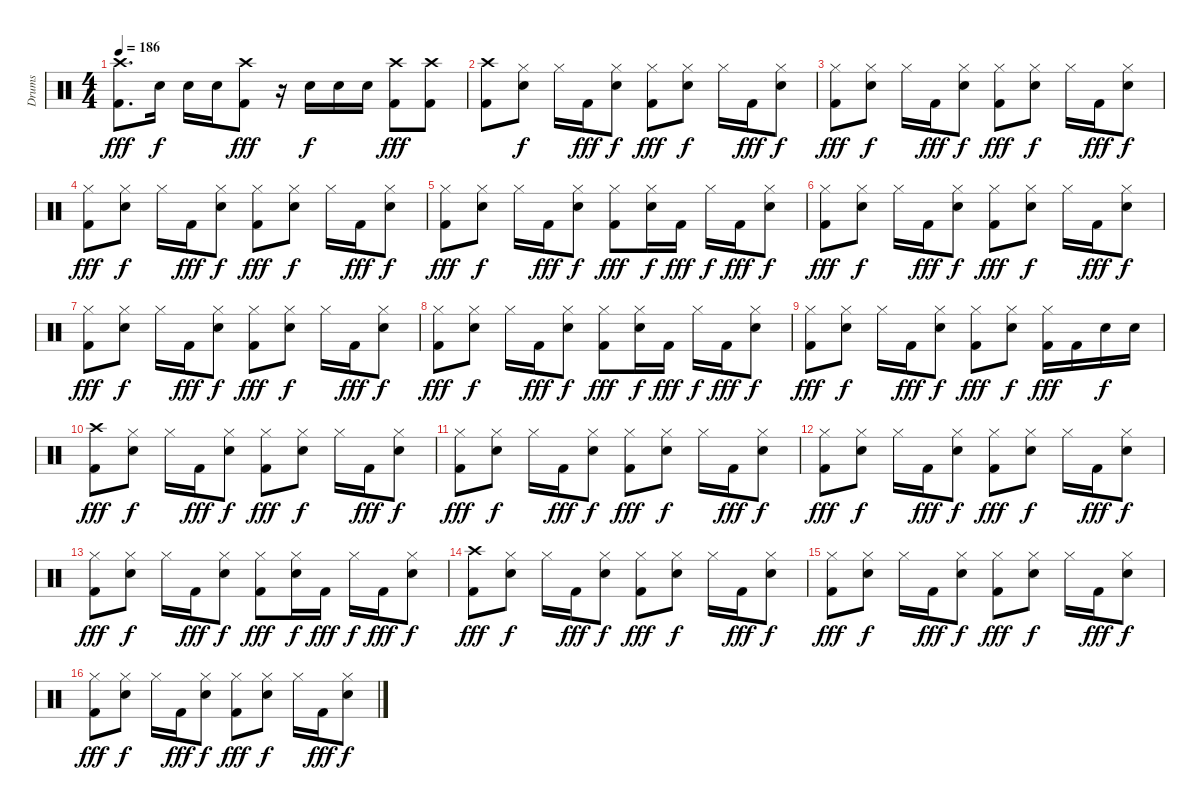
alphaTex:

\track ("Drums" "Drums") {instrument percussion}
\staff {score}
\articulation defaults
\ts (4 4)
\tempo 186
\clef neutral
\ks c
("Crash high (hit)" "Kick (hit) 2").8{d dy fff} "Electric Snare (hit)".16{dy f} "Electric Snare (hit)".16 "Electric Snare (hit)".16 ("Crash high (hit)" "Kick (hit) 2").8{dy fff} r.16 "Electric Snare (hit)".16{dy f} "Electric Snare (hit)".16 "Electric Snare (hit)".16 ("Crash high (hit)" "Kick (hit) 2").8{dy fff} ("Crash high (hit)" "Kick (hit) 2").8 |
("Crash high (hit)" "Kick (hit) 2").8 ("Hi-Hat (closed)" "Electric Snare (hit)").8{dy f} "Hi-Hat (closed)".16 "Kick (hit) 2".16{dy fff} ("Hi-Hat (closed)" "Electric Snare (hit)").8{dy f} ("Hi-Hat (closed)" "Kick (hit) 2").8{dy fff} ("Hi-Hat (closed)" "Electric Snare (hit)").8{dy f} "Hi-Hat (closed)".16 "Kick (hit) 2".16{dy fff} ("Hi-Hat (closed)" "Electric Snare (hit)").8{dy f} |
("Hi-Hat (closed)" "Kick (hit) 2").8{dy fff} ("Hi-Hat (closed)" "Electric Snare (hit)").8{dy f} "Hi-Hat (closed)".16 "Kick (hit) 2".16{dy fff} ("Hi-Hat (closed)" "Electric Snare (hit)").8{dy f} ("Hi-Hat (closed)" "Kick (hit) 2").8{dy fff} ("Hi-Hat (closed)" "Electric Snare (hit)").8{dy f} "Hi-Hat (closed)".16 "Kick (hit) 2".16{dy fff} ("Hi-Hat (closed)" "Electric Snare (hit)").8{dy f} |
("Hi-Hat (closed)" "Kick (hit) 2").8{dy fff} ("Hi-Hat (closed)" "Electric Snare (hit)").8{dy f} "Hi-Hat (closed)".16 "Kick (hit) 2".16{dy fff} ("Hi-Hat (closed)" "Electric Snare (hit)").8{dy f} ("Hi-Hat (closed)" "Kick (hit) 2").8{dy fff} ("Hi-Hat (closed)" "Electric Snare (hit)").8{dy f} "Hi-Hat (closed)".16 "Kick (hit) 2".16{dy fff} ("Hi-Hat (closed)" "Electric Snare (hit)").8{dy f} |
("Hi-Hat (closed)" "Kick (hit) 2").8{dy fff} ("Hi-Hat (closed)" "Electric Snare (hit)").8{dy f} "Hi-Hat (closed)".16 "Kick (hit) 2".16{dy fff} ("Hi-Hat (closed)" "Electric Snare (hit)").8{dy f} ("Hi-Hat (closed)" "Kick (hit) 2").8{dy fff} ("Hi-Hat (closed)" "Electric Snare (hit)").16{dy f} "Kick (hit) 2".16{dy fff} "Hi-Hat (closed)".16{dy f} "Kick (hit) 2".16{dy fff} ("Hi-Hat (closed)" "Electric Snare (hit)").8{dy f} |
("Hi-Hat (closed)" "Kick (hit) 2").8{dy fff} ("Hi-Hat (closed)" "Electric Snare (hit)").8{dy f} "Hi-Hat (closed)".16 "Kick (hit) 2".16{dy fff} ("Hi-Hat (closed)" "Electric Snare (hit)").8{dy f} ("Hi-Hat (closed)" "Kick (hit) 2").8{dy fff} ("Hi-Hat (closed)" "Electric Snare (hit)").8{dy f} "Hi-Hat (closed)".16 "Kick (hit) 2".16{dy fff} ("Hi-Hat (closed)" "Electric Snare (hit)").8{dy f} |
("Hi-Hat (closed)" "Kick (hit) 2").8{dy fff} ("Hi-Hat (closed)" "Electric Snare (hit)").8{dy f} "Hi-Hat (closed)".16 "Kick (hit) 2".16{dy fff} ("Hi-Hat (closed)" "Electric Snare (hit)").8{dy f} ("Hi-Hat (closed)" "Kick (hit) 2").8{dy fff} ("Hi-Hat (closed)" "Electric Snare (hit)").8{dy f} "Hi-Hat (closed)".16 "Kick (hit) 2".16{dy fff} ("Hi-Hat (closed)" "Electric Snare (hit)").8{dy f} |
("Hi-Hat (closed)" "Kick (hit) 2").8{dy fff} ("Hi-Hat (closed)" "Electric Snare (hit)").8{dy f} "Hi-Hat (closed)".16 "Kick (hit) 2".16{dy fff} ("Hi-Hat (closed)" "Electric Snare (hit)").8{dy f} ("Hi-Hat (closed)" "Kick (hit) 2").8{dy fff} ("Hi-Hat (closed)" "Electric Snare (hit)").16{dy f} "Kick (hit) 2".16{dy fff} "Hi-Hat (closed)".16{dy f} "Kick (hit) 2".16{dy fff} ("Hi-Hat (closed)" "Electric Snare (hit)").8{dy f} |
("Hi-Hat (closed)" "Kick (hit) 2").8{dy fff} ("Hi-Hat (closed)" "Electric Snare (hit)").8{dy f} "Hi-Hat (closed)".16 "Kick (hit) 2".16{dy fff} ("Hi-Hat (closed)" "Electric Snare (hit)").8{dy f} ("Hi-Hat (closed)" "Kick (hit) 2").8{dy fff} ("Hi-Hat (closed)" "Electric Snare (hit)").8{dy f} ("Hi-Hat (closed)" "Kick (hit) 2").16{dy fff} "Kick (hit) 2".16 "Electric Snare (hit)".16{dy f} "Electric Snare (hit)".16 |
("Crash high (hit)" "Kick (hit) 2").8{dy fff} ("Hi-Hat (closed)" "Electric Snare (hit)").8{dy f} "Hi-Hat (closed)".16 "Kick (hit) 2".16{dy fff} ("Hi-Hat (closed)" "Electric Snare (hit)").8{dy f} ("Hi-Hat (closed)" "Kick (hit) 2").8{dy fff} ("Hi-Hat (closed)" "Electric Snare (hit)").8{dy f} "Hi-Hat (closed)".16 "Kick (hit) 2".16{dy fff} ("Hi-Hat (closed)" "Electric Snare (hit)").8{dy f} |
("Hi-Hat (closed)" "Kick (hit) 2").8{dy fff} ("Hi-Hat (closed)" "Electric Snare (hit)").8{dy f} "Hi-Hat (closed)".16 "Kick (hit) 2".16{dy fff} ("Hi-Hat (closed)" "Electric Snare (hit)").8{dy f} ("Hi-Hat (closed)" "Kick (hit) 2").8{dy fff} ("Hi-Hat (closed)" "Electric Snare (hit)").8{dy f} "Hi-Hat (closed)".16 "Kick (hit) 2".16{dy fff} ("Hi-Hat (closed)" "Electric Snare (hit)").8{dy f} |
("Hi-Hat (closed)" "Kick (hit) 2").8{dy fff} ("Hi-Hat (closed)" "Electric Snare (hit)").8{dy f} "Hi-Hat (closed)".16 "Kick (hit) 2".16{dy fff} ("Hi-Hat (closed)" "Electric Snare (hit)").8{dy f} ("Hi-Hat (closed)" "Kick (hit) 2").8{dy fff} ("Hi-Hat (closed)" "Electric Snare (hit)").8{dy f} "Hi-Hat (closed)".16 "Kick (hit) 2".16{dy fff} ("Hi-Hat (closed)" "Electric Snare (hit)").8{dy f} |
("Hi-Hat (closed)" "Kick (hit) 2").8{dy fff} ("Hi-Hat (closed)" "Electric Snare (hit)").8{dy f} "Hi-Hat (closed)".16 "Kick (hit) 2".16{dy fff} ("Hi-Hat (closed)" "Electric Snare (hit)").8{dy f} ("Hi-Hat (closed)" "Kick (hit) 2").8{dy fff} ("Hi-Hat (closed)" "Electric Snare (hit)").16{dy f} "Kick (hit) 2".16{dy fff} "Hi-Hat (closed)".16{dy f} "Kick (hit) 2".16{dy fff} ("Hi-Hat (closed)" "Electric Snare (hit)").8{dy f} |
("Crash high (hit)" "Kick (hit) 2").8{dy fff} ("Hi-Hat (closed)" "Electric Snare (hit)").8{dy f} "Hi-Hat (closed)".16 "Kick (hit) 2".16{dy fff} ("Hi-Hat (closed)" "Electric Snare (hit)").8{dy f} ("Hi-Hat (closed)" "Kick (hit) 2").8{dy fff} ("Hi-Hat (closed)" "Electric Snare (hit)").8{dy f} "Hi-Hat (closed)".16 "Kick (hit) 2".16{dy fff} ("Hi-Hat (closed)" "Electric Snare (hit)").8{dy f} |
("Hi-Hat (closed)" "Kick (hit) 2").8{dy fff} ("Hi-Hat (closed)" "Electric Snare (hit)").8{dy f} "Hi-Hat (closed)".16 "Kick (hit) 2".16{dy fff} ("Hi-Hat (closed)" "Electric Snare (hit)").8{dy f} ("Hi-Hat (closed)" "Kick (hit) 2").8{dy fff} ("Hi-Hat (closed)" "Electric Snare (hit)").8{dy f} "Hi-Hat (closed)".16 "Kick (hit) 2".16{dy fff} ("Hi-Hat (closed)" "Electric Snare (hit)").8{dy f} |
("Hi-Hat (closed)" "Kick (hit) 2").8{dy fff} ("Hi-Hat (closed)" "Electric Snare (hit)").8{dy f} "Hi-Hat (closed)".16 "Kick (hit) 2".16{dy fff} ("Hi-Hat (closed)" "Electric Snare (hit)").8{dy f} ("Hi-Hat (closed)" "Kick (hit) 2").8{dy fff} ("Hi-Hat (closed)" "Electric Snare (hit)").8{dy f} "Hi-Hat (closed)".16 "Kick (hit) 2".16{dy fff} ("Hi-Hat (closed)" "Electric Snare (hit)").8{dy f}
